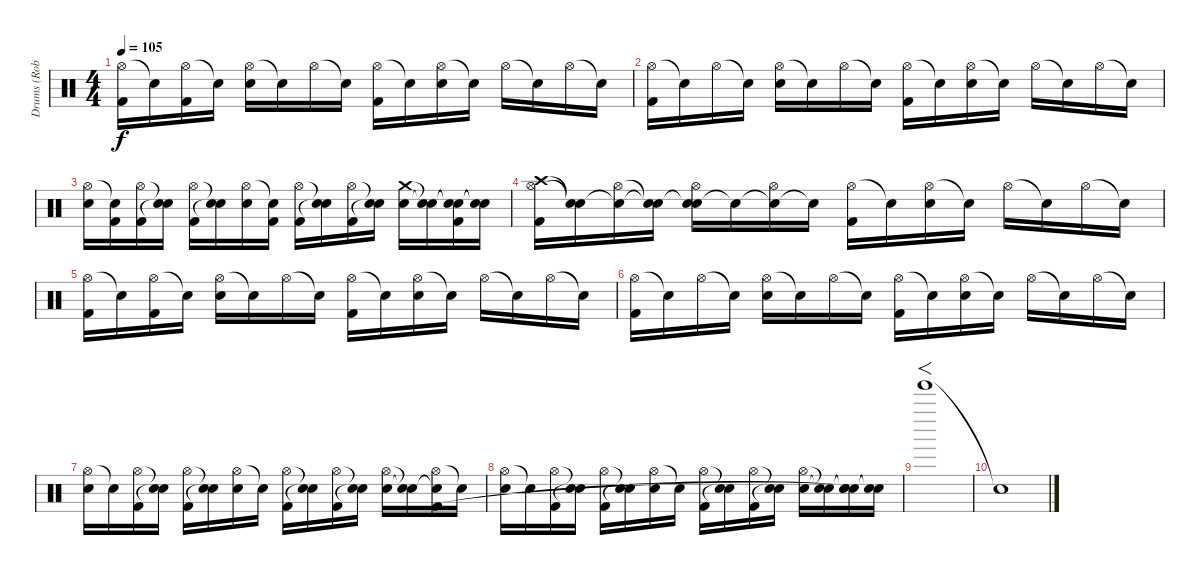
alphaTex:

\track ("Drums (Rob Bourdon)" "Drums (Rob") {instrument percussion}
\staff {score}
\articulation defaults
\ts (4 4)
\tempo 105
\clef neutral
\ks c
("Hi-Hat (open)" "Kick (hit) 2").16{dy f} "Snare (hit)"{t}.16 ("Hi-Hat (open)" "Kick (hit) 2").16 "Snare (hit)"{t}.16 ("Hi-Hat (open)" "Electric Snare (hit)").16 "Snare (hit)"{t}.16 "Hi-Hat (open)".16 "Snare (hit)"{t}.16 ("Hi-Hat (open)" "Kick (hit) 2").16 "Snare (hit)"{t}.16 ("Hi-Hat (open)" "Electric Snare (hit)").16 "Snare (hit)"{t}.16 "Hi-Hat (open)".16 "Snare (hit)"{t}.16 "Hi-Hat (open)".16 "Snare (hit)"{t}.16 |
("Hi-Hat (open)" "Kick (hit) 2").16 "Snare (hit)"{t}.16 "Hi-Hat (open)".16 "Snare (hit)"{t}.16 ("Hi-Hat (open)" "Electric Snare (hit)").16 "Snare (hit)"{t}.16 "Hi-Hat (open)".16 "Snare (hit)"{t}.16 ("Hi-Hat (open)" "Kick (hit) 2").16 "Snare (hit)"{t}.16 ("Hi-Hat (open)" "Electric Snare (hit)").16 "Snare (hit)"{t}.16 "Hi-Hat (open)".16 "Snare (hit)"{t}.16 "Hi-Hat (open)".16 "Snare (hit)"{t}.16 |
("Hi-Hat (open)" "Electric Snare (hit)").16 ("Snare (hit)"{t} "Kick (hit) 2").16 ("Hi-Hat (open)" "Kick (hit) 2").16 ("Snare (hit)"{t} "Snare (hit)"{t}).16 ("Hi-Hat (open)" "Kick (hit) 2").16 ("Snare (hit)"{t} "Snare (hit)"{t}).16 ("Hi-Hat (open)" "Electric Snare (hit)").16 ("Snare (hit)"{t} "Kick (hit) 2").16 ("Hi-Hat (open)" "Kick (hit) 2").16 ("Snare (hit)"{t} "Snare (hit)"{t}).16 ("Hi-Hat (open)" "Kick (hit) 2").16 ("Snare (hit)"{t} "Snare (hit)"{t}).16 ("Crash medium (hit)" "Electric Snare (hit)").16 ("Snare (hit)"{t} "Snare (hit)"{t}).16 ("Snare (hit)"{t} "Snare (hit)"{t} "Kick (hit) 2").16 ("Snare (hit)"{t} "Snare (hit)"{t}).16 |
("Crash high (hit)" "Hi-Hat (open)" "Kick (hit) 2").16 ("Snare (hit)"{t} "Snare (hit)"{t}).16 ("Snare (hit)"{t} "Hi-Hat (open)").16 ("Snare (hit)"{t} "Snare (hit)"{t}).16 ("Snare (hit)"{t} "Hi-Hat (open)" "Electric Snare (hit)").16 "Snare (hit)"{t}.16 ("Snare (hit)"{t} "Hi-Hat (open)").16 "Snare (hit)"{t}.16 ("Hi-Hat (open)" "Kick (hit) 2").16 "Snare (hit)"{t}.16 ("Hi-Hat (open)" "Electric Snare (hit)").16 "Snare (hit)"{t}.16 "Hi-Hat (open)".16 "Snare (hit)"{t}.16 "Hi-Hat (open)".16 "Snare (hit)"{t}.16 |
("Hi-Hat (open)" "Kick (hit) 2").16 "Snare (hit)"{t}.16 ("Hi-Hat (open)" "Kick (hit) 2").16 "Snare (hit)"{t}.16 ("Hi-Hat (open)" "Electric Snare (hit)").16 "Snare (hit)"{t}.16 "Hi-Hat (open)".16 "Snare (hit)"{t}.16 ("Hi-Hat (open)" "Kick (hit) 2").16 "Snare (hit)"{t}.16 ("Hi-Hat (open)" "Electric Snare (hit)").16 "Snare (hit)"{t}.16 "Hi-Hat (open)".16 "Snare (hit)"{t}.16 "Hi-Hat (open)".16 "Snare (hit)"{t}.16 |
("Hi-Hat (open)" "Kick (hit) 2").16 "Snare (hit)"{t}.16 "Hi-Hat (open)".16 "Snare (hit)"{t}.16 ("Hi-Hat (open)" "Electric Snare (hit)").16 "Snare (hit)"{t}.16 "Hi-Hat (open)".16 "Snare (hit)"{t}.16 ("Hi-Hat (open)" "Kick (hit) 2").16 "Snare (hit)"{t}.16 ("Hi-Hat (open)" "Electric Snare (hit)").16 "Snare (hit)"{t}.16 "Hi-Hat (open)".16 "Snare (hit)"{t}.16 "Hi-Hat (open)".16 "Snare (hit)"{t}.16 |
("Hi-Hat (open)" "Electric Snare (hit)").16 "Snare (hit)"{t}.16 ("Hi-Hat (open)" "Kick (hit) 2").16 ("Snare (hit)"{t} "Snare (hit)"{t}).16 ("Hi-Hat (open)" "Kick (hit) 2").16 ("Snare (hit)"{t} "Snare (hit)"{t}).16 ("Hi-Hat (open)" "Electric Snare (hit)").16 "Snare (hit)"{t}.16 ("Hi-Hat (open)" "Kick (hit) 2").16 ("Snare (hit)"{t} "Snare (hit)"{t}).16 ("Hi-Hat (open)" "Kick (hit) 2").16 ("Snare (hit)"{t} "Snare (hit)"{t}).16 ("Hi-Hat (open)" "Electric Snare (hit)").16 ("Snare (hit)"{t} "Snare (hit)"{t}).16 ("Hi-Hat (open)" "Snare (hit)"{t} "Kick (hit) 2").16 "Snare (hit)"{t}.16 |
("Hi-Hat (open)" "Electric Snare (hit)").16 "Snare (hit)"{t}.16 ("Hi-Hat (open)" "Kick (hit) 2").16 ("Snare (hit)"{t} "Snare (hit)"{t}).16 ("Hi-Hat (open)" "Kick (hit) 2").16 ("Snare (hit)"{t} "Snare (hit)"{t}).16 ("Hi-Hat (open)" "Electric Snare (hit)").16 "Snare (hit)"{t}.16 ("Hi-Hat (open)" "Kick (hit) 2").16 ("Snare (hit)"{t} "Snare (hit)"{t}).16 ("Hi-Hat (open)" "Kick (hit) 2").16 ("Snare (hit)"{t} "Snare (hit)"{t}).16 ("Hi-Hat (open)" "Electric Snare (hit)").16 ("Snare (hit)"{t} "Snare (hit)"{t}).16 ("Snare (hit)"{t} "Snare (hit)"{t} "Snare (hit)"{t}).16 ("Snare (hit)"{t} "Snare (hit)"{t}).16 |
"Tinkle Bell (hit)".1{f volume 5} |
"Snare (hit)"{t}.1
